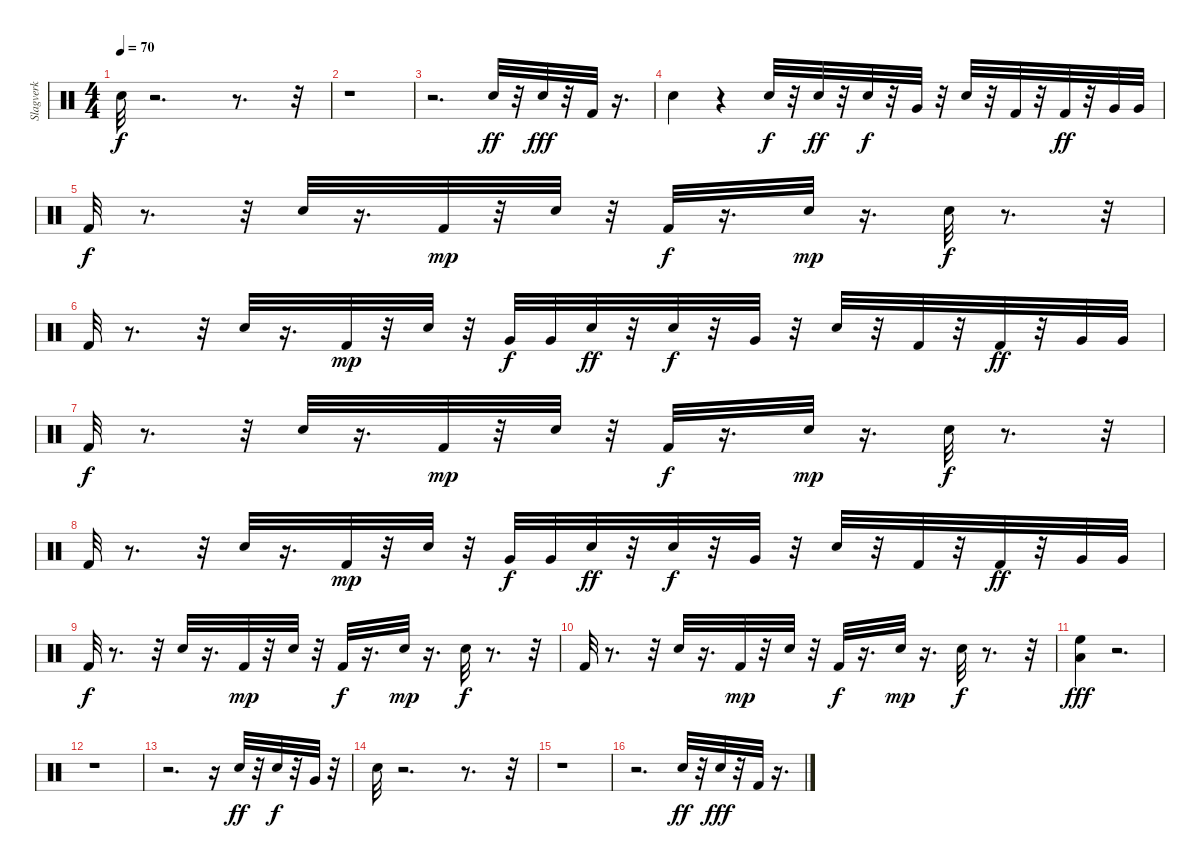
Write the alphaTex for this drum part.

\track ("Slagverk" "Slagverk") {instrument percussion}
\staff {score}
\articulation defaults
\ts (4 4)
\tempo 70
\clef neutral
\ks c "Electric Snare (hit)".32{dy f}
r.2{d} r.8{d} r.32 |
r.1 |
r.2{d} "Electric Snare (hit)".32{dy ff} r.32 "Electric Snare (hit)".32{dy fff} r.32 "Kick (hit) 2".32 r.16{d} |
"Electric Snare (hit)".4 r.4 "Electric Snare (hit)".32{dy f} r.32 "Electric Snare (hit)".32{dy ff} r.32 "Electric Snare (hit)".32{dy f} r.32 "Very Low Tom (hit)".32 r.32 "Electric Snare (hit)".32 r.32 "Kick (hit) 2".32 r.32 "Kick (hit) 2".32{dy ff} r.32 "Very Low Tom (hit)".32 "Very Low Tom (hit)".32 |
"Kick (hit) 2".32{dy f} r.8{d} r.32 "Electric Snare (hit)".32 r.16{d} "Kick (hit) 2".32{dy mp} r.32 "Electric Snare (hit)".32 r.32 "Kick (hit) 2".32{dy f} r.16{d} "Electric Snare (hit)".32{dy mp} r.16{d} "Electric Snare (hit)".32{dy f} r.8{d} r.32 |
"Kick (hit) 2".32 r.8{d} r.32 "Electric Snare (hit)".32 r.16{d} "Kick (hit) 2".32{dy mp} r.32 "Electric Snare (hit)".32 r.32 "Very Low Tom (hit)".32{dy f} "Very Low Tom (hit)".32 "Electric Snare (hit)".32{dy ff} r.32 "Electric Snare (hit)".32{dy f} r.32 "Very Low Tom (hit)".32 r.32 "Electric Snare (hit)".32 r.32 "Kick (hit) 2".32 r.32 "Kick (hit) 2".32{dy ff} r.32 "Very Low Tom (hit)".32 "Very Low Tom (hit)".32 |
"Kick (hit) 2".32{dy f} r.8{d} r.32 "Electric Snare (hit)".32 r.16{d} "Kick (hit) 2".32{dy mp} r.32 "Electric Snare (hit)".32 r.32 "Kick (hit) 2".32{dy f} r.16{d} "Electric Snare (hit)".32{dy mp} r.16{d} "Electric Snare (hit)".32{dy f} r.8{d} r.32 |
"Kick (hit) 2".32 r.8{d} r.32 "Electric Snare (hit)".32 r.16{d} "Kick (hit) 2".32{dy mp} r.32 "Electric Snare (hit)".32 r.32 "Very Low Tom (hit)".32{dy f} "Very Low Tom (hit)".32 "Electric Snare (hit)".32{dy ff} r.32 "Electric Snare (hit)".32{dy f} r.32 "Very Low Tom (hit)".32 r.32 "Electric Snare (hit)".32 r.32 "Kick (hit) 2".32 r.32 "Kick (hit) 2".32{dy ff} r.32 "Very Low Tom (hit)".32 "Very Low Tom (hit)".32 |
"Kick (hit) 2".32{dy f} r.8{d} r.32 "Electric Snare (hit)".32 r.16{d} "Kick (hit) 2".32{dy mp} r.32 "Electric Snare (hit)".32 r.32 "Kick (hit) 2".32{dy f} r.16{d} "Electric Snare (hit)".32{dy mp} r.16{d} "Electric Snare (hit)".32{dy f} r.8{d} r.32 |
"Kick (hit) 2".32 r.8{d} r.32 "Electric Snare (hit)".32 r.16{d} "Kick (hit) 2".32{dy mp} r.32 "Electric Snare (hit)".32 r.32 "Kick (hit) 2".32{dy f} r.16{d} "Electric Snare (hit)".32{dy mp} r.16{d} "Electric Snare (hit)".32{dy f} r.8{d} r.32 |
("Low Tom (hit)" "High Floor Tom (hit)").4{dy fff} r.2{d} |
r.1 |
r.2{d} r.16 "Electric Snare (hit)".32{dy ff} r.32 "Electric Snare (hit)".32{dy f} r.32 "Very Low Tom (hit)".32 r.32 |
"Electric Snare (hit)".32 r.2{d} r.8{d} r.32 |
r.1 |
r.2{d} "Electric Snare (hit)".32{dy ff} r.32 "Electric Snare (hit)".32{dy fff} r.32 "Kick (hit) 2".32 r.16{d}
